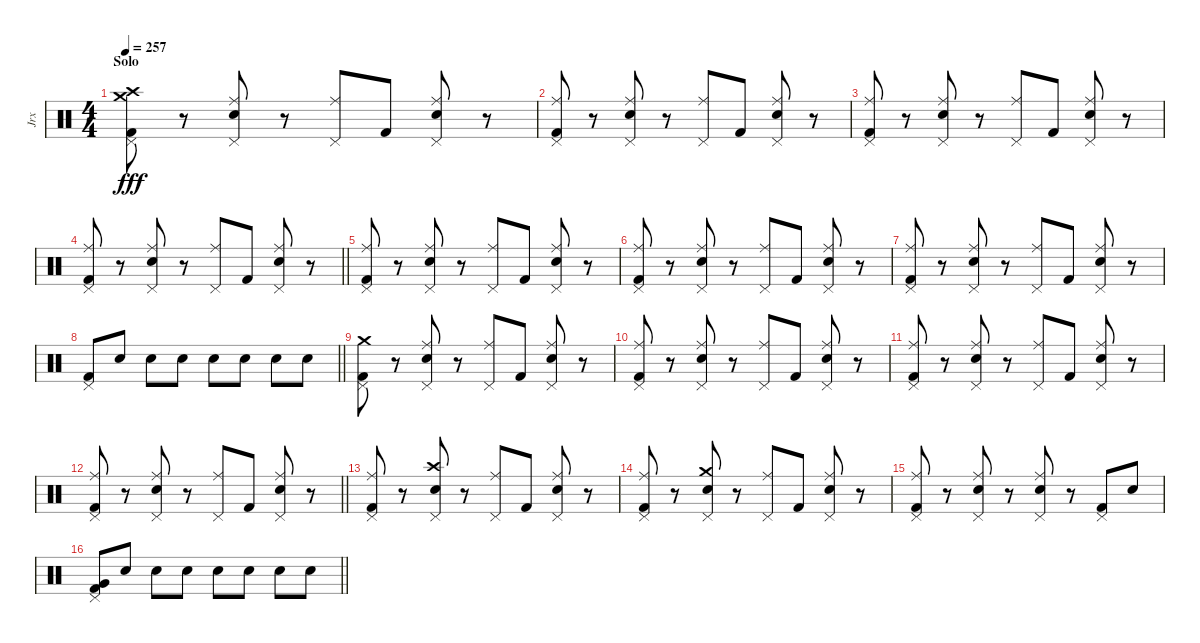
\track ("Jrx" "Jrx") {instrument percussion}
\staff {score}
\articulation defaults
\ts (4 4)
\section ("" "Solo")
\tempo 257
\clef neutral
\ks c
("Pedal Hi-Hat (hit)" "Kick (hit) 2" "Crash high (hit)" "Crash medium (hit)").8{dy fff} r.8 ("Pedal Hi-Hat (hit)" "Snare (hit) 2" "Ride (middle)").8 r.8 ("Pedal Hi-Hat (hit)" "Ride (middle)").8 "Kick (hit) 2".8 ("Pedal Hi-Hat (hit)" "Snare (hit) 2" "Ride (middle)").8 r.8 |
("Pedal Hi-Hat (hit)" "Kick (hit) 2" "Ride (middle)").8 r.8 ("Pedal Hi-Hat (hit)" "Snare (hit) 2" "Ride (middle)").8 r.8 ("Pedal Hi-Hat (hit)" "Ride (middle)").8 "Kick (hit) 2".8 ("Pedal Hi-Hat (hit)" "Snare (hit) 2" "Ride (middle)").8 r.8 |
("Pedal Hi-Hat (hit)" "Kick (hit) 2" "Ride (middle)").8 r.8 ("Pedal Hi-Hat (hit)" "Snare (hit) 2" "Ride (middle)").8 r.8 ("Pedal Hi-Hat (hit)" "Ride (middle)").8 "Kick (hit) 2".8 ("Pedal Hi-Hat (hit)" "Snare (hit) 2" "Ride (middle)").8 r.8 |
\barLineRight lightlight
("Pedal Hi-Hat (hit)" "Kick (hit) 2" "Ride (middle)").8 r.8 ("Pedal Hi-Hat (hit)" "Snare (hit) 2" "Ride (middle)").8 r.8 ("Pedal Hi-Hat (hit)" "Ride (middle)").8 "Kick (hit) 2".8 ("Pedal Hi-Hat (hit)" "Snare (hit) 2" "Ride (middle)").8 r.8 |
("Pedal Hi-Hat (hit)" "Kick (hit) 2" "Ride (middle)").8 r.8 ("Pedal Hi-Hat (hit)" "Snare (hit) 2" "Ride (middle)").8 r.8 ("Pedal Hi-Hat (hit)" "Ride (middle)").8 "Kick (hit) 2".8 ("Pedal Hi-Hat (hit)" "Snare (hit) 2" "Ride (middle)").8 r.8 |
("Pedal Hi-Hat (hit)" "Kick (hit) 2" "Ride (middle)").8 r.8 ("Pedal Hi-Hat (hit)" "Snare (hit) 2" "Ride (middle)").8 r.8 ("Pedal Hi-Hat (hit)" "Ride (middle)").8 "Kick (hit) 2".8 ("Pedal Hi-Hat (hit)" "Snare (hit) 2" "Ride (middle)").8 r.8 |
("Pedal Hi-Hat (hit)" "Kick (hit) 2" "Ride (middle)").8 r.8 ("Pedal Hi-Hat (hit)" "Snare (hit) 2" "Ride (middle)").8 r.8 ("Pedal Hi-Hat (hit)" "Ride (middle)").8 "Kick (hit) 2".8 ("Pedal Hi-Hat (hit)" "Snare (hit) 2" "Ride (middle)").8 r.8 |
\barLineRight lightlight
("Pedal Hi-Hat (hit)" "Kick (hit) 2").8 "Snare (hit) 2".8 "Snare (hit) 2".8 "Snare (hit) 2".8 "Snare (hit) 2".8 "Snare (hit) 2".8 "Snare (hit) 2".8 "Snare (hit) 2".8 |
("Pedal Hi-Hat (hit)" "Kick (hit) 2" "Crash medium (hit)").8 r.8 ("Pedal Hi-Hat (hit)" "Snare (hit) 2" "Ride (middle)").8 r.8 ("Pedal Hi-Hat (hit)" "Ride (middle)").8 "Kick (hit) 2".8 ("Pedal Hi-Hat (hit)" "Snare (hit) 2" "Ride (middle)").8 r.8 |
("Pedal Hi-Hat (hit)" "Kick (hit) 2" "Ride (middle)").8 r.8 ("Pedal Hi-Hat (hit)" "Snare (hit) 2" "Ride (middle)").8 r.8 ("Pedal Hi-Hat (hit)" "Ride (middle)").8 "Kick (hit) 2".8 ("Pedal Hi-Hat (hit)" "Snare (hit) 2" "Ride (middle)").8 r.8 |
("Pedal Hi-Hat (hit)" "Kick (hit) 2" "Ride (middle)").8 r.8 ("Pedal Hi-Hat (hit)" "Snare (hit) 2" "Ride (middle)").8 r.8 ("Pedal Hi-Hat (hit)" "Ride (middle)").8 "Kick (hit) 2".8 ("Pedal Hi-Hat (hit)" "Snare (hit) 2" "Ride (middle)").8 r.8 |
\barLineRight lightlight
("Pedal Hi-Hat (hit)" "Kick (hit) 2" "Ride (middle)").8 r.8 ("Pedal Hi-Hat (hit)" "Snare (hit) 2" "Ride (middle)").8 r.8 ("Pedal Hi-Hat (hit)" "Ride (middle)").8 "Kick (hit) 2".8 ("Pedal Hi-Hat (hit)" "Snare (hit) 2" "Ride (middle)").8 r.8 |
("Pedal Hi-Hat (hit)" "Kick (hit) 2" "Ride (middle)").8 r.8 ("Pedal Hi-Hat (hit)" "Snare (hit) 2" "Crash high (hit)").8 r.8 ("Pedal Hi-Hat (hit)" "Ride (middle)").8 "Kick (hit) 2".8 ("Pedal Hi-Hat (hit)" "Snare (hit) 2" "Ride (middle)").8 r.8 |
("Pedal Hi-Hat (hit)" "Kick (hit) 2" "Ride (middle)").8 r.8 ("Pedal Hi-Hat (hit)" "Snare (hit) 2" "Crash medium (hit)").8 r.8 ("Pedal Hi-Hat (hit)" "Ride (middle)").8 "Kick (hit) 2".8 ("Pedal Hi-Hat (hit)" "Snare (hit) 2" "Ride (middle)").8 r.8 |
("Pedal Hi-Hat (hit)" "Kick (hit) 2" "Ride (middle)").8 r.8 ("Pedal Hi-Hat (hit)" "Snare (hit) 2" "Ride (middle)").8 r.8 ("Pedal Hi-Hat (hit)" "Snare (hit) 2" "Ride (middle)").8 r.8 ("Pedal Hi-Hat (hit)" "Kick (hit) 2").8 "Snare (hit) 2".8 |
\barLineRight lightlight
("Pedal Hi-Hat (hit)" "Kick (hit) 2" "Very Low Tom (hit)").8 "Snare (hit) 2".8 "Snare (hit) 2".8 "Snare (hit) 2".8 "Snare (hit) 2".8 "Snare (hit) 2".8 "Snare (hit) 2".8 "Snare (hit) 2".8
